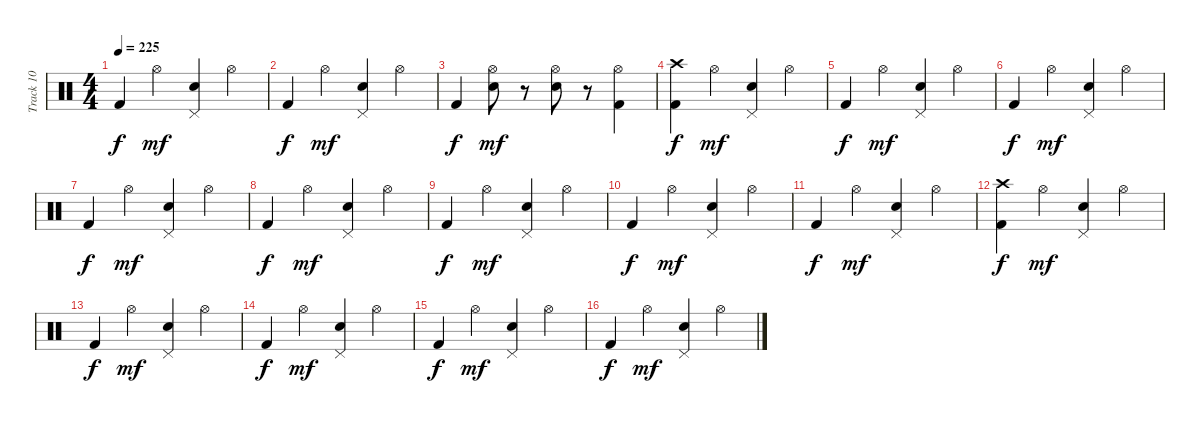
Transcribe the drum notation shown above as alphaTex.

\track ("Track 10" "Track 10") {instrument percussion}
\staff {score}
\articulation defaults
\ts (4 4)
\tempo 225
\clef neutral
\ks c "Kick (hit) 2".4{dy f} "Hi-Hat (open)".4{dy mf}
("Electric Snare (hit)" "Pedal Hi-Hat (hit)").4 "Hi-Hat (open)".4 |
"Kick (hit) 2".4{dy f} "Hi-Hat (open)".4{dy mf} ("Electric Snare (hit)" "Pedal Hi-Hat (hit)").4 "Hi-Hat (open)".4 |
"Kick (hit) 2".4{dy f} ("Electric Snare (hit)" "Hi-Hat (open)").8{dy mf} r.8 ("Electric Snare (hit)" "Hi-Hat (open)").8 r.8 ("Hi-Hat (open)" "Kick (hit) 2").4 |
("Crash high (hit)" "Kick (hit) 2").4{dy f} "Hi-Hat (open)".4{dy mf} ("Electric Snare (hit)" "Pedal Hi-Hat (hit)").4 "Hi-Hat (open)".4 |
"Kick (hit) 2".4{dy f} "Hi-Hat (open)".4{dy mf} ("Electric Snare (hit)" "Pedal Hi-Hat (hit)").4 "Hi-Hat (open)".4 |
"Kick (hit) 2".4{dy f} "Hi-Hat (open)".4{dy mf} ("Electric Snare (hit)" "Pedal Hi-Hat (hit)").4 "Hi-Hat (open)".4 |
"Kick (hit) 2".4{dy f} "Hi-Hat (open)".4{dy mf} ("Electric Snare (hit)" "Pedal Hi-Hat (hit)").4 "Hi-Hat (open)".4 |
"Kick (hit) 2".4{dy f} "Hi-Hat (open)".4{dy mf} ("Electric Snare (hit)" "Pedal Hi-Hat (hit)").4 "Hi-Hat (open)".4 |
"Kick (hit) 2".4{dy f} "Hi-Hat (open)".4{dy mf} ("Electric Snare (hit)" "Pedal Hi-Hat (hit)").4 "Hi-Hat (open)".4 |
"Kick (hit) 2".4{dy f} "Hi-Hat (open)".4{dy mf} ("Electric Snare (hit)" "Pedal Hi-Hat (hit)").4 "Hi-Hat (open)".4 |
"Kick (hit) 2".4{dy f} "Hi-Hat (open)".4{dy mf} ("Electric Snare (hit)" "Pedal Hi-Hat (hit)").4 "Hi-Hat (open)".4 |
("Crash high (hit)" "Kick (hit) 2").4{dy f} "Hi-Hat (open)".4{dy mf} ("Electric Snare (hit)" "Pedal Hi-Hat (hit)").4 "Hi-Hat (open)".4 |
"Kick (hit) 2".4{dy f} "Hi-Hat (open)".4{dy mf} ("Electric Snare (hit)" "Pedal Hi-Hat (hit)").4 "Hi-Hat (open)".4 |
"Kick (hit) 2".4{dy f} "Hi-Hat (open)".4{dy mf} ("Electric Snare (hit)" "Pedal Hi-Hat (hit)").4 "Hi-Hat (open)".4 |
"Kick (hit) 2".4{dy f} "Hi-Hat (open)".4{dy mf} ("Electric Snare (hit)" "Pedal Hi-Hat (hit)").4 "Hi-Hat (open)".4 |
"Kick (hit) 2".4{dy f} "Hi-Hat (open)".4{dy mf} ("Electric Snare (hit)" "Pedal Hi-Hat (hit)").4 "Hi-Hat (open)".4
